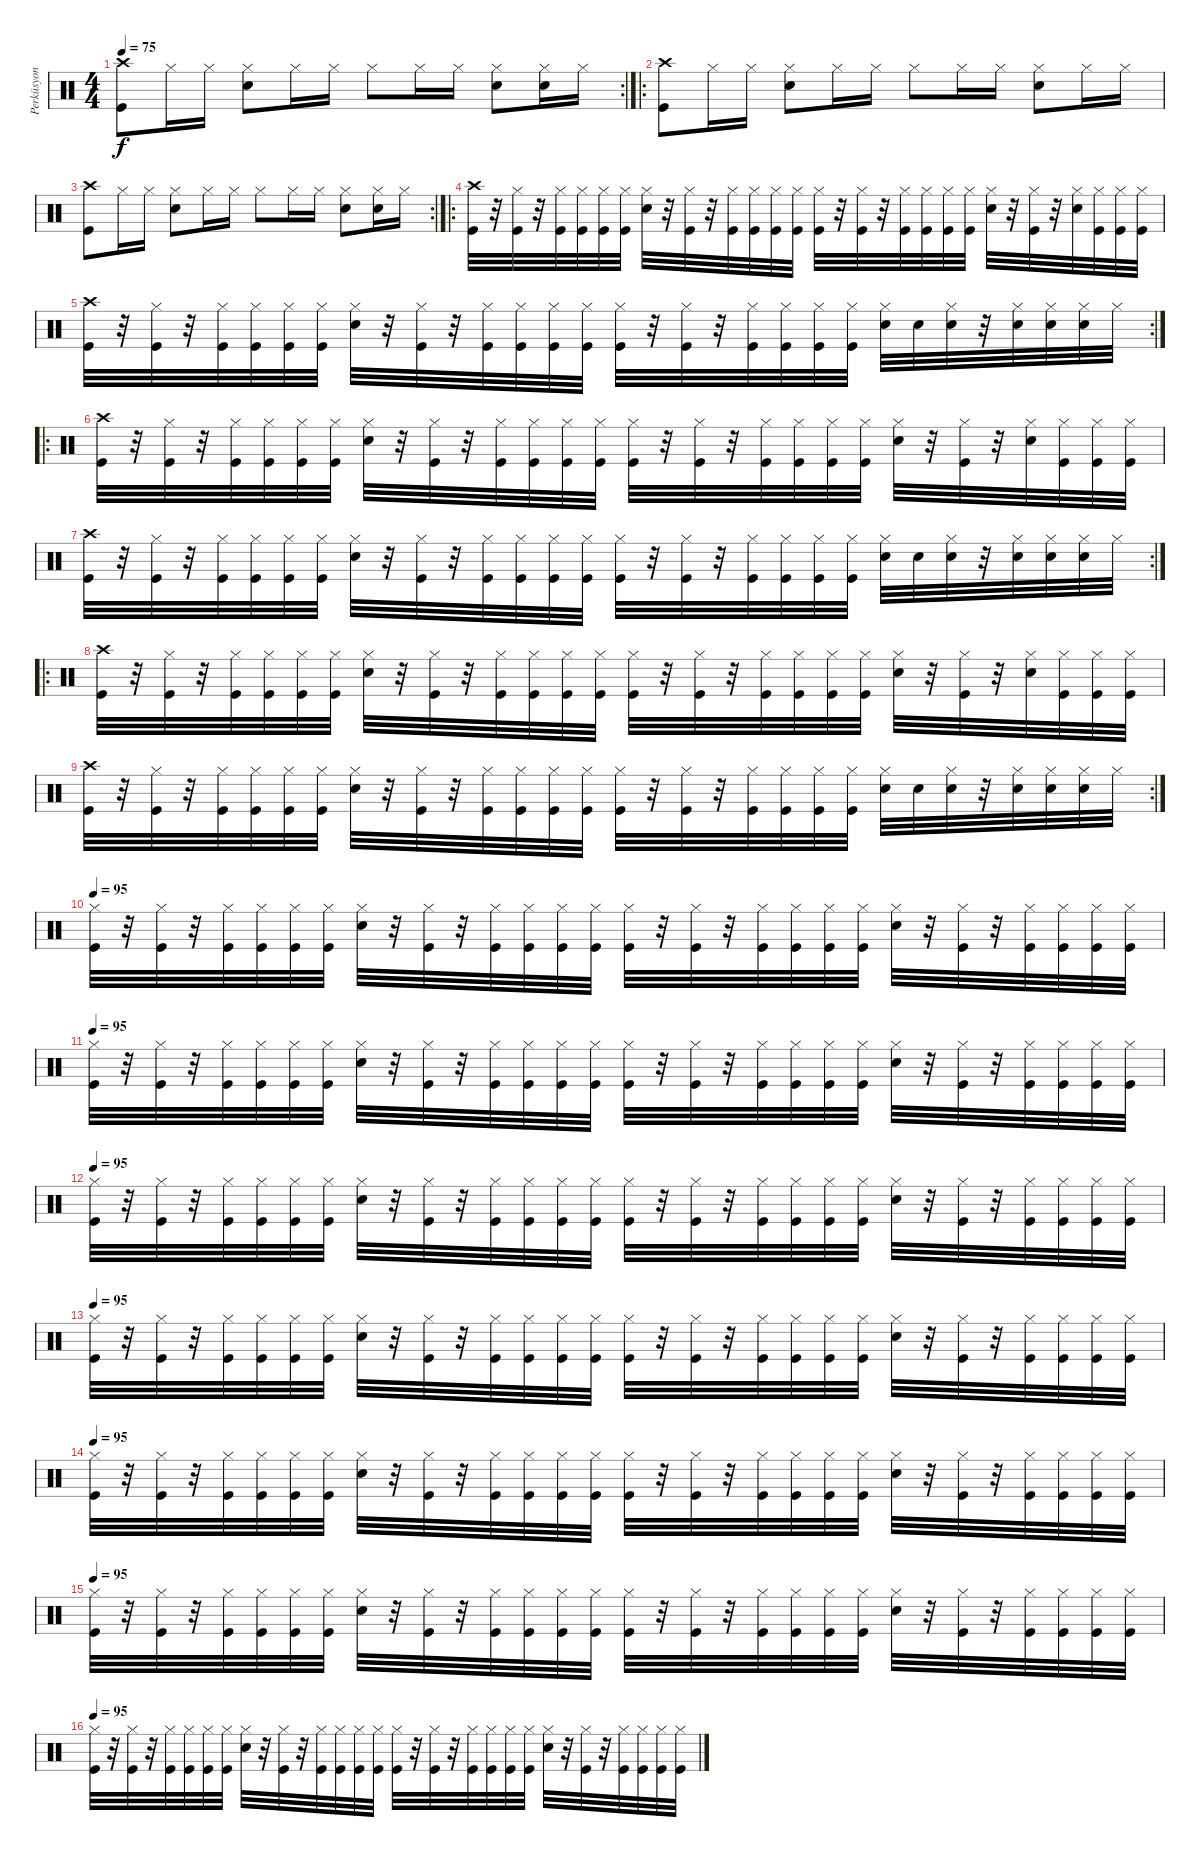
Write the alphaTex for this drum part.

\track ("Perküsyon" "Perküsyon") {instrument percussion}
\staff {score}
\articulation defaults
\rc 2
\ts (4 4)
\tempo 75
\clef neutral
\ks c
("Kick (hit)" "Crash high (hit)").8{dy f} "Hi-Hat (closed)".16 "Hi-Hat (closed)".16 ("Snare (hit) 2" "Hi-Hat (closed)").8 "Hi-Hat (closed)".16 "Hi-Hat (closed)".16 "Hi-Hat (closed)".8 "Hi-Hat (closed)".16 "Hi-Hat (closed)".16 ("Snare (hit) 2" "Hi-Hat (closed)").8 ("Snare (hit) 2" "Hi-Hat (closed)").16 "Hi-Hat (closed)".16 |
\ro
("Kick (hit)" "Crash high (hit)").8 "Hi-Hat (closed)".16 "Hi-Hat (closed)".16 ("Snare (hit) 2" "Hi-Hat (closed)").8 "Hi-Hat (closed)".16 "Hi-Hat (closed)".16 "Hi-Hat (closed)".8 "Hi-Hat (closed)".16 "Hi-Hat (closed)".16 ("Snare (hit) 2" "Hi-Hat (closed)").8 "Hi-Hat (closed)".16 "Hi-Hat (closed)".16 |
\rc 2
("Kick (hit)" "Crash high (hit)").8 "Hi-Hat (closed)".16 "Hi-Hat (closed)".16 ("Snare (hit) 2" "Hi-Hat (closed)").8 "Hi-Hat (closed)".16 "Hi-Hat (closed)".16 "Hi-Hat (closed)".8 "Hi-Hat (closed)".16 "Hi-Hat (closed)".16 ("Snare (hit) 2" "Hi-Hat (closed)").8 ("Snare (hit) 2" "Hi-Hat (closed)").16 "Hi-Hat (closed)".16 |
\ro
("Kick (hit)" "Crash high (hit)").32 r.32 ("Kick (hit)" "Hi-Hat (closed)").32 r.32 ("Kick (hit)" "Hi-Hat (closed)").32 ("Kick (hit)" "Hi-Hat (closed)").32 ("Kick (hit)" "Hi-Hat (closed)").32 ("Kick (hit)" "Hi-Hat (closed)").32 ("Snare (hit) 2" "Hi-Hat (closed)").32 r.32 ("Kick (hit)" "Hi-Hat (closed)").32 r.32 ("Kick (hit)" "Hi-Hat (closed)").32 ("Kick (hit)" "Hi-Hat (closed)").32 ("Kick (hit)" "Hi-Hat (closed)").32 ("Kick (hit)" "Hi-Hat (closed)").32 ("Kick (hit)" "Hi-Hat (closed)").32 r.32 ("Kick (hit)" "Hi-Hat (closed)").32 r.32 ("Kick (hit)" "Hi-Hat (closed)").32 ("Kick (hit)" "Hi-Hat (closed)").32 ("Kick (hit)" "Hi-Hat (closed)").32 ("Kick (hit)" "Hi-Hat (closed)").32 ("Snare (hit) 2" "Hi-Hat (closed)").32 r.32 ("Kick (hit)" "Hi-Hat (closed)").32 r.32 ("Snare (hit) 2" "Hi-Hat (closed)").32 ("Kick (hit)" "Hi-Hat (closed)").32 ("Kick (hit)" "Hi-Hat (closed)").32 ("Kick (hit)" "Hi-Hat (closed)").32 |
\rc 2
("Kick (hit)" "Crash high (hit)").32 r.32 ("Kick (hit)" "Hi-Hat (closed)").32 r.32 ("Kick (hit)" "Hi-Hat (closed)").32 ("Kick (hit)" "Hi-Hat (closed)").32 ("Kick (hit)" "Hi-Hat (closed)").32 ("Kick (hit)" "Hi-Hat (closed)").32 ("Snare (hit) 2" "Hi-Hat (closed)").32 r.32 ("Kick (hit)" "Hi-Hat (closed)").32 r.32 ("Kick (hit)" "Hi-Hat (closed)").32 ("Kick (hit)" "Hi-Hat (closed)").32 ("Kick (hit)" "Hi-Hat (closed)").32 ("Kick (hit)" "Hi-Hat (closed)").32 ("Kick (hit)" "Hi-Hat (closed)").32 r.32 ("Kick (hit)" "Hi-Hat (closed)").32 r.32 ("Kick (hit)" "Hi-Hat (closed)").32 ("Kick (hit)" "Hi-Hat (closed)").32 ("Kick (hit)" "Hi-Hat (closed)").32 ("Kick (hit)" "Hi-Hat (closed)").32 ("Snare (hit) 2" "Hi-Hat (closed)").32 "Snare (hit) 2".32 ("Snare (hit) 2" "Hi-Hat (closed)").32 r.32 ("Snare (hit) 2" "Hi-Hat (closed)").32 ("Snare (hit) 2" "Hi-Hat (closed)").32 ("Snare (hit) 2" "Hi-Hat (closed)").32 "Hi-Hat (closed)".32 |
\ro
("Kick (hit)" "Crash high (hit)").32 r.32 ("Kick (hit)" "Hi-Hat (closed)").32 r.32 ("Kick (hit)" "Hi-Hat (closed)").32 ("Kick (hit)" "Hi-Hat (closed)").32 ("Kick (hit)" "Hi-Hat (closed)").32 ("Kick (hit)" "Hi-Hat (closed)").32 ("Snare (hit) 2" "Hi-Hat (closed)").32 r.32 ("Kick (hit)" "Hi-Hat (closed)").32 r.32 ("Kick (hit)" "Hi-Hat (closed)").32 ("Kick (hit)" "Hi-Hat (closed)").32 ("Kick (hit)" "Hi-Hat (closed)").32 ("Kick (hit)" "Hi-Hat (closed)").32 ("Kick (hit)" "Hi-Hat (closed)").32 r.32 ("Kick (hit)" "Hi-Hat (closed)").32 r.32 ("Kick (hit)" "Hi-Hat (closed)").32 ("Kick (hit)" "Hi-Hat (closed)").32 ("Kick (hit)" "Hi-Hat (closed)").32 ("Kick (hit)" "Hi-Hat (closed)").32 ("Snare (hit) 2" "Hi-Hat (closed)").32 r.32 ("Kick (hit)" "Hi-Hat (closed)").32 r.32 ("Snare (hit) 2" "Hi-Hat (closed)").32 ("Kick (hit)" "Hi-Hat (closed)").32 ("Kick (hit)" "Hi-Hat (closed)").32 ("Kick (hit)" "Hi-Hat (closed)").32 |
\rc 2
("Kick (hit)" "Crash high (hit)").32 r.32 ("Kick (hit)" "Hi-Hat (closed)").32 r.32 ("Kick (hit)" "Hi-Hat (closed)").32 ("Kick (hit)" "Hi-Hat (closed)").32 ("Kick (hit)" "Hi-Hat (closed)").32 ("Kick (hit)" "Hi-Hat (closed)").32 ("Snare (hit) 2" "Hi-Hat (closed)").32 r.32 ("Kick (hit)" "Hi-Hat (closed)").32 r.32 ("Kick (hit)" "Hi-Hat (closed)").32 ("Kick (hit)" "Hi-Hat (closed)").32 ("Kick (hit)" "Hi-Hat (closed)").32 ("Kick (hit)" "Hi-Hat (closed)").32 ("Kick (hit)" "Hi-Hat (closed)").32 r.32 ("Kick (hit)" "Hi-Hat (closed)").32 r.32 ("Kick (hit)" "Hi-Hat (closed)").32 ("Kick (hit)" "Hi-Hat (closed)").32 ("Kick (hit)" "Hi-Hat (closed)").32 ("Kick (hit)" "Hi-Hat (closed)").32 ("Snare (hit) 2" "Hi-Hat (closed)").32 "Snare (hit) 2".32 ("Snare (hit) 2" "Hi-Hat (closed)").32 r.32 ("Snare (hit) 2" "Hi-Hat (closed)").32 ("Snare (hit) 2" "Hi-Hat (closed)").32 ("Snare (hit) 2" "Hi-Hat (closed)").32 "Hi-Hat (closed)".32 |
\ro
("Kick (hit)" "Crash high (hit)").32 r.32 ("Kick (hit)" "Hi-Hat (closed)").32 r.32 ("Kick (hit)" "Hi-Hat (closed)").32 ("Kick (hit)" "Hi-Hat (closed)").32 ("Kick (hit)" "Hi-Hat (closed)").32 ("Kick (hit)" "Hi-Hat (closed)").32 ("Snare (hit) 2" "Hi-Hat (closed)").32 r.32 ("Kick (hit)" "Hi-Hat (closed)").32 r.32 ("Kick (hit)" "Hi-Hat (closed)").32 ("Kick (hit)" "Hi-Hat (closed)").32 ("Kick (hit)" "Hi-Hat (closed)").32 ("Kick (hit)" "Hi-Hat (closed)").32 ("Kick (hit)" "Hi-Hat (closed)").32 r.32 ("Kick (hit)" "Hi-Hat (closed)").32 r.32 ("Kick (hit)" "Hi-Hat (closed)").32 ("Kick (hit)" "Hi-Hat (closed)").32 ("Kick (hit)" "Hi-Hat (closed)").32 ("Kick (hit)" "Hi-Hat (closed)").32 ("Snare (hit) 2" "Hi-Hat (closed)").32 r.32 ("Kick (hit)" "Hi-Hat (closed)").32 r.32 ("Snare (hit) 2" "Hi-Hat (closed)").32 ("Kick (hit)" "Hi-Hat (closed)").32 ("Kick (hit)" "Hi-Hat (closed)").32 ("Kick (hit)" "Hi-Hat (closed)").32 |
\rc 2
("Kick (hit)" "Crash high (hit)").32 r.32 ("Kick (hit)" "Hi-Hat (closed)").32 r.32 ("Kick (hit)" "Hi-Hat (closed)").32 ("Kick (hit)" "Hi-Hat (closed)").32 ("Kick (hit)" "Hi-Hat (closed)").32 ("Kick (hit)" "Hi-Hat (closed)").32 ("Snare (hit) 2" "Hi-Hat (closed)").32 r.32 ("Kick (hit)" "Hi-Hat (closed)").32 r.32 ("Kick (hit)" "Hi-Hat (closed)").32 ("Kick (hit)" "Hi-Hat (closed)").32 ("Kick (hit)" "Hi-Hat (closed)").32 ("Kick (hit)" "Hi-Hat (closed)").32 ("Kick (hit)" "Hi-Hat (closed)").32 r.32 ("Kick (hit)" "Hi-Hat (closed)").32 r.32 ("Kick (hit)" "Hi-Hat (closed)").32 ("Kick (hit)" "Hi-Hat (closed)").32 ("Kick (hit)" "Hi-Hat (closed)").32 ("Kick (hit)" "Hi-Hat (closed)").32 ("Snare (hit) 2" "Hi-Hat (closed)").32 "Snare (hit) 2".32 ("Snare (hit) 2" "Hi-Hat (closed)").32 r.32 ("Snare (hit) 2" "Hi-Hat (closed)").32 ("Snare (hit) 2" "Hi-Hat (closed)").32 ("Snare (hit) 2" "Hi-Hat (closed)").32 "Hi-Hat (closed)".32 |
\tempo 95
("Kick (hit)" "Hi-Hat (closed)").32 r.32 ("Kick (hit)" "Hi-Hat (closed)").32 r.32 ("Kick (hit)" "Hi-Hat (closed)").32 ("Kick (hit)" "Hi-Hat (closed)").32 ("Kick (hit)" "Hi-Hat (closed)").32 ("Kick (hit)" "Hi-Hat (closed)").32 ("Snare (hit) 2" "Hi-Hat (closed)").32 r.32 ("Kick (hit)" "Hi-Hat (closed)").32 r.32 ("Kick (hit)" "Hi-Hat (closed)").32 ("Kick (hit)" "Hi-Hat (closed)").32 ("Kick (hit)" "Hi-Hat (closed)").32 ("Kick (hit)" "Hi-Hat (closed)").32 ("Kick (hit)" "Hi-Hat (closed)").32 r.32 ("Kick (hit)" "Hi-Hat (closed)").32 r.32 ("Kick (hit)" "Hi-Hat (closed)").32 ("Kick (hit)" "Hi-Hat (closed)").32 ("Kick (hit)" "Hi-Hat (closed)").32 ("Kick (hit)" "Hi-Hat (closed)").32 ("Snare (hit) 2" "Hi-Hat (closed)").32 r.32 ("Kick (hit)" "Hi-Hat (closed)").32 r.32 ("Kick (hit)" "Hi-Hat (closed)").32 ("Kick (hit)" "Hi-Hat (closed)").32 ("Kick (hit)" "Hi-Hat (closed)").32 ("Kick (hit)" "Hi-Hat (closed)").32 |
\tempo 95
("Kick (hit)" "Hi-Hat (closed)").32 r.32 ("Kick (hit)" "Hi-Hat (closed)").32 r.32 ("Kick (hit)" "Hi-Hat (closed)").32 ("Kick (hit)" "Hi-Hat (closed)").32 ("Kick (hit)" "Hi-Hat (closed)").32 ("Kick (hit)" "Hi-Hat (closed)").32 ("Snare (hit) 2" "Hi-Hat (closed)").32 r.32 ("Kick (hit)" "Hi-Hat (closed)").32 r.32 ("Kick (hit)" "Hi-Hat (closed)").32 ("Kick (hit)" "Hi-Hat (closed)").32 ("Kick (hit)" "Hi-Hat (closed)").32 ("Kick (hit)" "Hi-Hat (closed)").32 ("Kick (hit)" "Hi-Hat (closed)").32 r.32 ("Kick (hit)" "Hi-Hat (closed)").32 r.32 ("Kick (hit)" "Hi-Hat (closed)").32 ("Kick (hit)" "Hi-Hat (closed)").32 ("Kick (hit)" "Hi-Hat (closed)").32 ("Kick (hit)" "Hi-Hat (closed)").32 ("Snare (hit) 2" "Hi-Hat (closed)").32 r.32 ("Kick (hit)" "Hi-Hat (closed)").32 r.32 ("Kick (hit)" "Hi-Hat (closed)").32 ("Kick (hit)" "Hi-Hat (closed)").32 ("Kick (hit)" "Hi-Hat (closed)").32 ("Kick (hit)" "Hi-Hat (closed)").32 |
\tempo 95
("Kick (hit)" "Hi-Hat (closed)").32 r.32 ("Kick (hit)" "Hi-Hat (closed)").32 r.32 ("Kick (hit)" "Hi-Hat (closed)").32 ("Kick (hit)" "Hi-Hat (closed)").32 ("Kick (hit)" "Hi-Hat (closed)").32 ("Kick (hit)" "Hi-Hat (closed)").32 ("Snare (hit) 2" "Hi-Hat (closed)").32 r.32 ("Kick (hit)" "Hi-Hat (closed)").32 r.32 ("Kick (hit)" "Hi-Hat (closed)").32 ("Kick (hit)" "Hi-Hat (closed)").32 ("Kick (hit)" "Hi-Hat (closed)").32 ("Kick (hit)" "Hi-Hat (closed)").32 ("Kick (hit)" "Hi-Hat (closed)").32 r.32 ("Kick (hit)" "Hi-Hat (closed)").32 r.32 ("Kick (hit)" "Hi-Hat (closed)").32 ("Kick (hit)" "Hi-Hat (closed)").32 ("Kick (hit)" "Hi-Hat (closed)").32 ("Kick (hit)" "Hi-Hat (closed)").32 ("Snare (hit) 2" "Hi-Hat (closed)").32 r.32 ("Kick (hit)" "Hi-Hat (closed)").32 r.32 ("Kick (hit)" "Hi-Hat (closed)").32 ("Kick (hit)" "Hi-Hat (closed)").32 ("Kick (hit)" "Hi-Hat (closed)").32 ("Kick (hit)" "Hi-Hat (closed)").32 |
\tempo 95
("Kick (hit)" "Hi-Hat (closed)").32 r.32 ("Kick (hit)" "Hi-Hat (closed)").32 r.32 ("Kick (hit)" "Hi-Hat (closed)").32 ("Kick (hit)" "Hi-Hat (closed)").32 ("Kick (hit)" "Hi-Hat (closed)").32 ("Kick (hit)" "Hi-Hat (closed)").32 ("Snare (hit) 2" "Hi-Hat (closed)").32 r.32 ("Kick (hit)" "Hi-Hat (closed)").32 r.32 ("Kick (hit)" "Hi-Hat (closed)").32 ("Kick (hit)" "Hi-Hat (closed)").32 ("Kick (hit)" "Hi-Hat (closed)").32 ("Kick (hit)" "Hi-Hat (closed)").32 ("Kick (hit)" "Hi-Hat (closed)").32 r.32 ("Kick (hit)" "Hi-Hat (closed)").32 r.32 ("Kick (hit)" "Hi-Hat (closed)").32 ("Kick (hit)" "Hi-Hat (closed)").32 ("Kick (hit)" "Hi-Hat (closed)").32 ("Kick (hit)" "Hi-Hat (closed)").32 ("Snare (hit) 2" "Hi-Hat (closed)").32 r.32 ("Kick (hit)" "Hi-Hat (closed)").32 r.32 ("Kick (hit)" "Hi-Hat (closed)").32 ("Kick (hit)" "Hi-Hat (closed)").32 ("Kick (hit)" "Hi-Hat (closed)").32 ("Kick (hit)" "Hi-Hat (closed)").32 |
\tempo 95
("Kick (hit)" "Hi-Hat (closed)").32 r.32 ("Kick (hit)" "Hi-Hat (closed)").32 r.32 ("Kick (hit)" "Hi-Hat (closed)").32 ("Kick (hit)" "Hi-Hat (closed)").32 ("Kick (hit)" "Hi-Hat (closed)").32 ("Kick (hit)" "Hi-Hat (closed)").32 ("Snare (hit) 2" "Hi-Hat (closed)").32 r.32 ("Kick (hit)" "Hi-Hat (closed)").32 r.32 ("Kick (hit)" "Hi-Hat (closed)").32 ("Kick (hit)" "Hi-Hat (closed)").32 ("Kick (hit)" "Hi-Hat (closed)").32 ("Kick (hit)" "Hi-Hat (closed)").32 ("Kick (hit)" "Hi-Hat (closed)").32 r.32 ("Kick (hit)" "Hi-Hat (closed)").32 r.32 ("Kick (hit)" "Hi-Hat (closed)").32 ("Kick (hit)" "Hi-Hat (closed)").32 ("Kick (hit)" "Hi-Hat (closed)").32 ("Kick (hit)" "Hi-Hat (closed)").32 ("Snare (hit) 2" "Hi-Hat (closed)").32 r.32 ("Kick (hit)" "Hi-Hat (closed)").32 r.32 ("Kick (hit)" "Hi-Hat (closed)").32 ("Kick (hit)" "Hi-Hat (closed)").32 ("Kick (hit)" "Hi-Hat (closed)").32 ("Kick (hit)" "Hi-Hat (closed)").32 |
\tempo 95
("Kick (hit)" "Hi-Hat (closed)").32 r.32 ("Kick (hit)" "Hi-Hat (closed)").32 r.32 ("Kick (hit)" "Hi-Hat (closed)").32 ("Kick (hit)" "Hi-Hat (closed)").32 ("Kick (hit)" "Hi-Hat (closed)").32 ("Kick (hit)" "Hi-Hat (closed)").32 ("Snare (hit) 2" "Hi-Hat (closed)").32 r.32 ("Kick (hit)" "Hi-Hat (closed)").32 r.32 ("Kick (hit)" "Hi-Hat (closed)").32 ("Kick (hit)" "Hi-Hat (closed)").32 ("Kick (hit)" "Hi-Hat (closed)").32 ("Kick (hit)" "Hi-Hat (closed)").32 ("Kick (hit)" "Hi-Hat (closed)").32 r.32 ("Kick (hit)" "Hi-Hat (closed)").32 r.32 ("Kick (hit)" "Hi-Hat (closed)").32 ("Kick (hit)" "Hi-Hat (closed)").32 ("Kick (hit)" "Hi-Hat (closed)").32 ("Kick (hit)" "Hi-Hat (closed)").32 ("Snare (hit) 2" "Hi-Hat (closed)").32 r.32 ("Kick (hit)" "Hi-Hat (closed)").32 r.32 ("Kick (hit)" "Hi-Hat (closed)").32 ("Kick (hit)" "Hi-Hat (closed)").32 ("Kick (hit)" "Hi-Hat (closed)").32 ("Kick (hit)" "Hi-Hat (closed)").32 |
\tempo 95
("Kick (hit)" "Hi-Hat (closed)").32 r.32 ("Kick (hit)" "Hi-Hat (closed)").32 r.32 ("Kick (hit)" "Hi-Hat (closed)").32 ("Kick (hit)" "Hi-Hat (closed)").32 ("Kick (hit)" "Hi-Hat (closed)").32 ("Kick (hit)" "Hi-Hat (closed)").32 ("Snare (hit) 2" "Hi-Hat (closed)").32 r.32 ("Kick (hit)" "Hi-Hat (closed)").32 r.32 ("Kick (hit)" "Hi-Hat (closed)").32 ("Kick (hit)" "Hi-Hat (closed)").32 ("Kick (hit)" "Hi-Hat (closed)").32 ("Kick (hit)" "Hi-Hat (closed)").32 ("Kick (hit)" "Hi-Hat (closed)").32 r.32 ("Kick (hit)" "Hi-Hat (closed)").32 r.32 ("Kick (hit)" "Hi-Hat (closed)").32 ("Kick (hit)" "Hi-Hat (closed)").32 ("Kick (hit)" "Hi-Hat (closed)").32 ("Kick (hit)" "Hi-Hat (closed)").32 ("Snare (hit) 2" "Hi-Hat (closed)").32 r.32 ("Kick (hit)" "Hi-Hat (closed)").32 r.32 ("Kick (hit)" "Hi-Hat (closed)").32 ("Kick (hit)" "Hi-Hat (closed)").32 ("Kick (hit)" "Hi-Hat (closed)").32 ("Kick (hit)" "Hi-Hat (closed)").32
